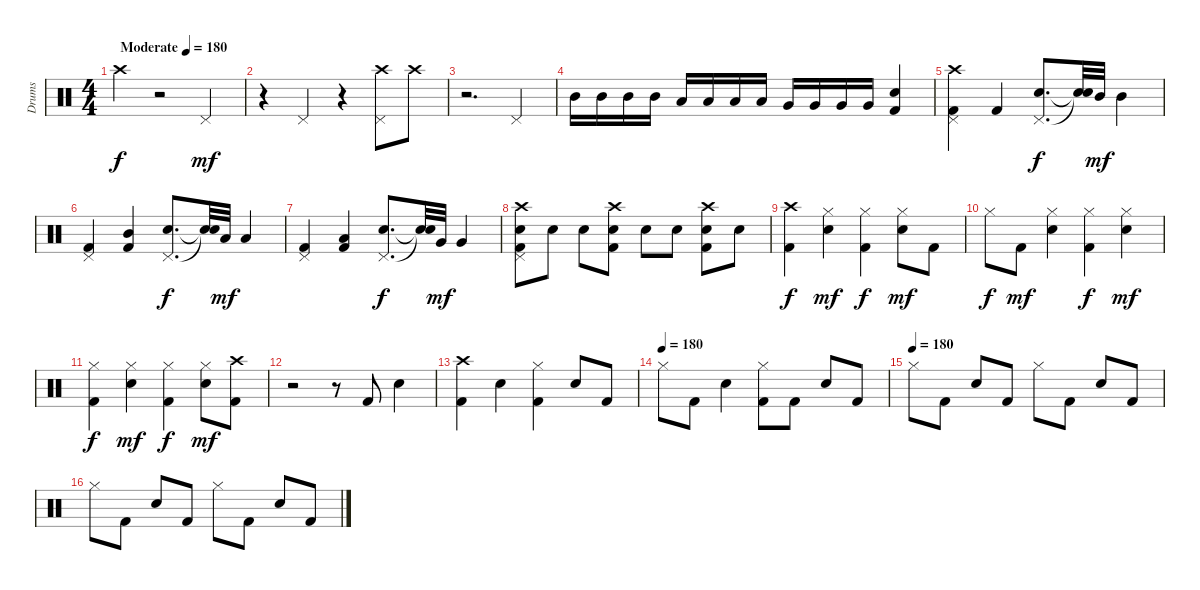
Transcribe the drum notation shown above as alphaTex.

\track ("Drums" "Drums") {instrument percussion}
\staff {score}
\articulation defaults
\ts (4 4)
\tempo (180 "Moderate")
\clef neutral
\ks c "Crash high (hit)".4{dy f}
r.2 "Pedal Hi-Hat (hit)".4{dy mf} |
r.4 "Pedal Hi-Hat (hit)".4 r.4 ("Crash high (hit)" "Pedal Hi-Hat (hit)").8 "Crash high (hit)".8 |
r.2{d} "Pedal Hi-Hat (hit)".4 |
"Mid Tom (hit)".16 "Mid Tom (hit)".16 "Mid Tom (hit)".16 "Mid Tom (hit)".16 "Low Tom (hit)".16 "Low Tom (hit)".16 "Low Tom (hit)".16 "Low Tom (hit)".16 "Very Low Tom (hit)".16 "Very Low Tom (hit)".16 "Very Low Tom (hit)".16 "Very Low Tom (hit)".16 ("Snare (hit) 2" "Kick (hit) 2").4 |
("Crash high (hit)" "Pedal Hi-Hat (hit)" "Kick (hit) 2").4 "Kick (hit) 2".4 ("Snare (hit) 2" "Pedal Hi-Hat (hit)").8{d dy f} ("Snare (hit)"{t} "Snare (hit)"{t}).32 "Mid Tom (hit)".32{dy mf} "Mid Tom (hit)".4 |
("Pedal Hi-Hat (hit)" "Kick (hit) 2").4 ("Mid Tom (hit)" "Kick (hit) 2").4 ("Snare (hit) 2" "Pedal Hi-Hat (hit)").8{d dy f} ("Snare (hit)"{t} "Snare (hit)"{t}).32 "Low Tom (hit)".32{dy mf} "Low Tom (hit)".4 |
("Pedal Hi-Hat (hit)" "Kick (hit) 2").4 ("Low Tom (hit)" "Kick (hit) 2").4 ("Snare (hit) 2" "Pedal Hi-Hat (hit)").8{d dy f} ("Snare (hit)"{t} "Snare (hit)"{t}).32 "Very Low Tom (hit)".32{dy mf} "Very Low Tom (hit)".4 |
("Snare (hit) 2" "Crash high (hit)" "Pedal Hi-Hat (hit)" "Kick (hit) 2").8 "Snare (hit) 2".8 "Snare (hit) 2".8 ("Snare (hit) 2" "Crash high (hit)" "Kick (hit) 2").8 "Snare (hit) 2".8 "Snare (hit) 2".8 ("Snare (hit) 2" "Crash high (hit)" "Kick (hit) 2").8 "Snare (hit) 2".8 |
("Crash high (hit)" "Kick (hit) 2").4{dy f} ("Snare (hit) 2" "Hi-Hat (closed)").4{dy mf} ("Hi-Hat (closed)" "Kick (hit) 2").4{dy f} ("Snare (hit) 2" "Hi-Hat (closed)").8{dy mf} "Kick (hit) 2".8 |
"Hi-Hat (closed)".8{dy f} "Kick (hit) 2".8{dy mf} ("Snare (hit) 2" "Hi-Hat (closed)").4 ("Hi-Hat (closed)" "Kick (hit) 2").4{dy f} ("Snare (hit) 2" "Hi-Hat (closed)").4{dy mf} |
("Hi-Hat (closed)" "Kick (hit) 2").4{dy f} ("Snare (hit) 2" "Hi-Hat (closed)").4{dy mf} ("Hi-Hat (closed)" "Kick (hit) 2").4{dy f} ("Snare (hit) 2" "Hi-Hat (closed)").8{dy mf} ("Crash high (hit)" "Kick (hit) 2").8 |
r.2 r.8 "Kick (hit) 2".8 "Snare (hit) 2".4 |
("Crash high (hit)" "Kick (hit) 2").4 "Snare (hit) 2".4 ("Hi-Hat (closed)" "Kick (hit) 2").4 "Snare (hit) 2".8 "Kick (hit) 2".8 |
\tempo (180)
"Hi-Hat (closed)".8 "Kick (hit) 2".8 "Snare (hit) 2".4 ("Hi-Hat (closed)" "Kick (hit) 2").8 "Kick (hit) 2".8 "Snare (hit) 2".8 "Kick (hit) 2".8 |
\tempo (180)
"Hi-Hat (closed)".8 "Kick (hit) 2".8 "Snare (hit) 2".8 "Kick (hit) 2".8 "Hi-Hat (closed)".8 "Kick (hit) 2".8 "Snare (hit) 2".8 "Kick (hit) 2".8 |
"Hi-Hat (closed)".8 "Kick (hit) 2".8 "Snare (hit) 2".8 "Kick (hit) 2".8 "Hi-Hat (closed)".8 "Kick (hit) 2".8 "Snare (hit) 2".8 "Kick (hit) 2".8
